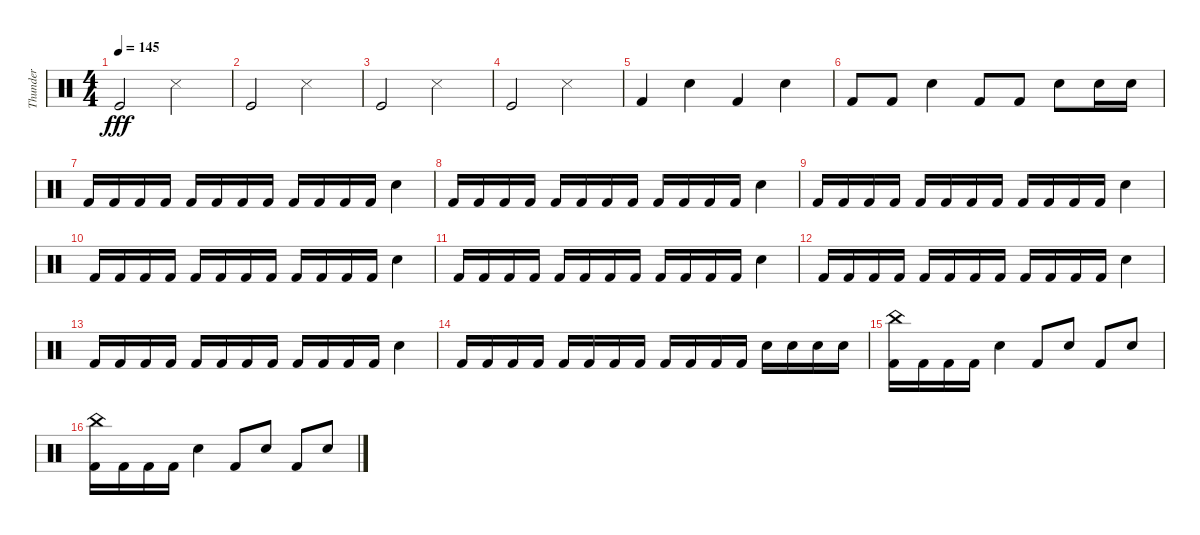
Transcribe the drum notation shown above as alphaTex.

\track ("Thunder" "Thunder") {instrument percussion}
\staff {score}
\articulation defaults
\ts (4 4)
\tempo 145
\clef neutral
\ks c "Kick (hit)".2{dy fff} "Snare (side stick) 3".2
|
"Kick (hit)".2 "Snare (side stick) 3".2 |
"Kick (hit)".2 "Snare (side stick) 3".2 |
"Kick (hit)".2 "Snare (side stick) 3".2 |
"Kick (hit) 2".4 "Snare (hit) 2".4 "Kick (hit) 2".4 "Snare (hit) 2".4 |
"Kick (hit) 2".8 "Kick (hit) 2".8 "Snare (hit) 2".4 "Kick (hit) 2".8 "Kick (hit) 2".8 "Snare (hit) 2".8 "Snare (hit) 2".16 "Snare (hit) 2".16 |
"Kick (hit) 2".16 "Kick (hit) 2".16 "Kick (hit) 2".16 "Kick (hit) 2".16 "Kick (hit) 2".16 "Kick (hit) 2".16 "Kick (hit) 2".16 "Kick (hit) 2".16 "Kick (hit) 2".16 "Kick (hit) 2".16 "Kick (hit) 2".16 "Kick (hit) 2".16 "Snare (hit) 2".4 |
"Kick (hit) 2".16 "Kick (hit) 2".16 "Kick (hit) 2".16 "Kick (hit) 2".16 "Kick (hit) 2".16 "Kick (hit) 2".16 "Kick (hit) 2".16 "Kick (hit) 2".16 "Kick (hit) 2".16 "Kick (hit) 2".16 "Kick (hit) 2".16 "Kick (hit) 2".16 "Snare (hit) 2".4 |
"Kick (hit) 2".16 "Kick (hit) 2".16 "Kick (hit) 2".16 "Kick (hit) 2".16 "Kick (hit) 2".16 "Kick (hit) 2".16 "Kick (hit) 2".16 "Kick (hit) 2".16 "Kick (hit) 2".16 "Kick (hit) 2".16 "Kick (hit) 2".16 "Kick (hit) 2".16 "Snare (hit) 2".4 |
"Kick (hit) 2".16 "Kick (hit) 2".16 "Kick (hit) 2".16 "Kick (hit) 2".16 "Kick (hit) 2".16 "Kick (hit) 2".16 "Kick (hit) 2".16 "Kick (hit) 2".16 "Kick (hit) 2".16 "Kick (hit) 2".16 "Kick (hit) 2".16 "Kick (hit) 2".16 "Electric Snare (hit)".4 |
"Kick (hit) 2".16 "Kick (hit) 2".16 "Kick (hit) 2".16 "Kick (hit) 2".16 "Kick (hit) 2".16 "Kick (hit) 2".16 "Kick (hit) 2".16 "Kick (hit) 2".16 "Kick (hit) 2".16 "Kick (hit) 2".16 "Kick (hit) 2".16 "Kick (hit) 2".16 "Snare (hit) 2".4 |
"Kick (hit) 2".16 "Kick (hit) 2".16 "Kick (hit) 2".16 "Kick (hit) 2".16 "Kick (hit) 2".16 "Kick (hit) 2".16 "Kick (hit) 2".16 "Kick (hit) 2".16 "Kick (hit) 2".16 "Kick (hit) 2".16 "Kick (hit) 2".16 "Kick (hit) 2".16 "Snare (hit) 2".4 |
"Kick (hit) 2".16 "Kick (hit) 2".16 "Kick (hit) 2".16 "Kick (hit) 2".16 "Kick (hit) 2".16 "Kick (hit) 2".16 "Kick (hit) 2".16 "Kick (hit) 2".16 "Kick (hit) 2".16 "Kick (hit) 2".16 "Kick (hit) 2".16 "Kick (hit) 2".16 "Snare (hit) 2".4 |
"Kick (hit) 2".16 "Kick (hit) 2".16 "Kick (hit) 2".16 "Kick (hit) 2".16 "Kick (hit) 2".16 "Kick (hit) 2".16 "Kick (hit) 2".16 "Kick (hit) 2".16 "Kick (hit) 2".16 "Kick (hit) 2".16 "Kick (hit) 2".16 "Kick (hit) 2".16 "Electric Snare (hit)".16 "Electric Snare (hit)".16 "Electric Snare (hit)".16 "Electric Snare (hit)".16 |
("China (hit)" "Kick (hit) 2").16 "Kick (hit) 2".16 "Kick (hit) 2".16 "Kick (hit) 2".16 "Electric Snare (hit)".4 "Kick (hit) 2".8 "Electric Snare (hit)".8 "Kick (hit) 2".8 "Electric Snare (hit)".8 |
("China (hit)" "Kick (hit) 2").16 "Kick (hit) 2".16 "Kick (hit) 2".16 "Kick (hit) 2".16 "Electric Snare (hit)".4 "Kick (hit) 2".8 "Electric Snare (hit)".8 "Kick (hit) 2".8 "Electric Snare (hit)".8
